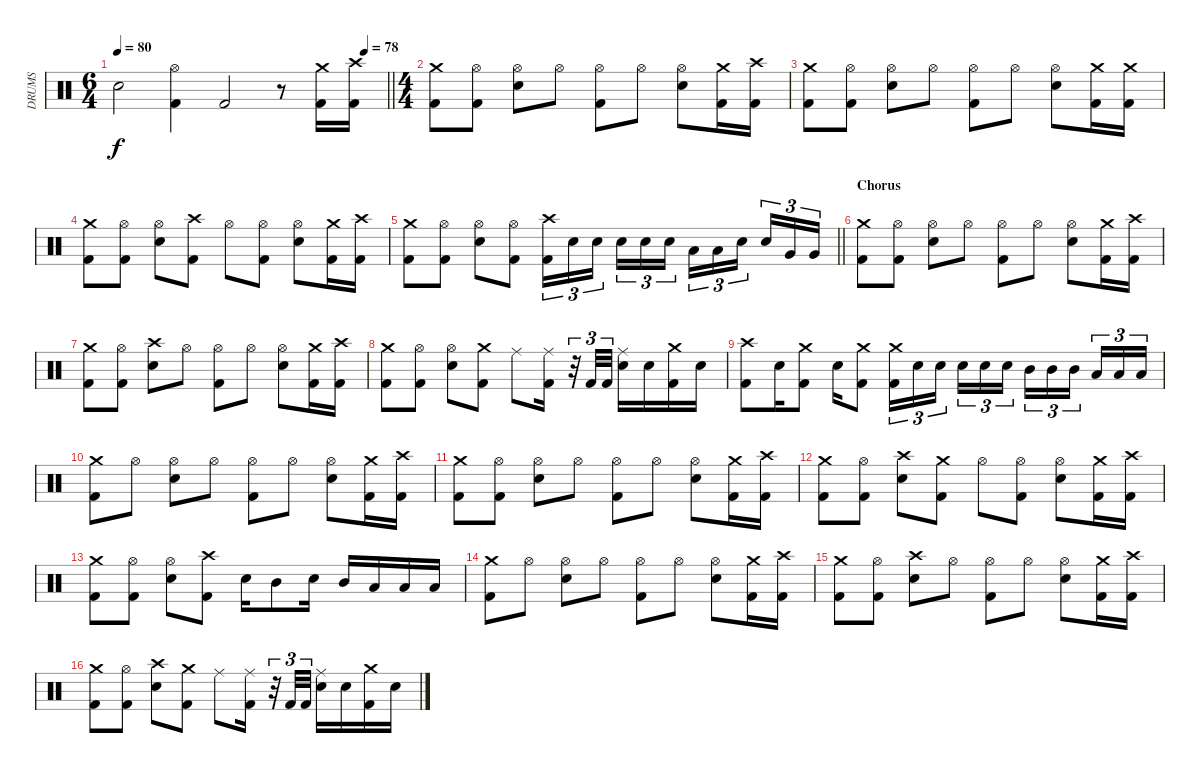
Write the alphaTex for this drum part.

\track ("DRUMS" "DRUMS") {instrument percussion}
\staff {score}
\articulation defaults
\ts (6 4)
\tempo 80
\tempo (78 0.9166666666666666)
\clef neutral
\barLineRight lightlight
\ks c "Snare (hit) 2".2{dy f}
("Hi-Hat (open)" "Kick (hit) 2").4 "Kick (hit) 2".2 r.8 ("Crash medium (hit)" "Kick (hit) 2").16 ("Crash high (hit)" "Kick (hit) 2").16 |
\ts (4 4)
("Crash medium (hit)" "Kick (hit) 2").8 ("Hi-Hat (open)" "Kick (hit) 2").8 ("Hi-Hat (open)" "Snare (hit) 2").8 "Hi-Hat (open)".8 ("Hi-Hat (open)" "Kick (hit) 2").8 "Hi-Hat (open)".8 ("Hi-Hat (open)" "Snare (hit) 2").8 ("Crash medium (hit)" "Kick (hit) 2").16 ("Crash high (hit)" "Kick (hit) 2").16 |
("Crash medium (hit)" "Kick (hit) 2").8 ("Hi-Hat (open)" "Kick (hit) 2").8 ("Hi-Hat (open)" "Snare (hit) 2").8 "Hi-Hat (open)".8 ("Hi-Hat (open)" "Kick (hit) 2").8 "Hi-Hat (open)".8 ("Hi-Hat (open)" "Snare (hit) 2").8 ("Crash medium (hit)" "Kick (hit) 2").16 ("Crash medium (hit)" "Kick (hit) 2").16 |
("Crash medium (hit)" "Kick (hit) 2").8 ("Hi-Hat (open)" "Kick (hit) 2").8 ("Hi-Hat (open)" "Snare (hit) 2").8 ("Crash high (hit)" "Kick (hit) 2").8 "Hi-Hat (open)".8 ("Hi-Hat (open)" "Kick (hit) 2").8 ("Hi-Hat (open)" "Snare (hit) 2").8 ("Crash medium (hit)" "Kick (hit) 2").16 ("Crash high (hit)" "Kick (hit) 2").16 |
\barLineRight lightlight
("Crash medium (hit)" "Kick (hit) 2").8 ("Hi-Hat (open)" "Kick (hit) 2").8 ("Hi-Hat (open)" "Snare (hit) 2").8 ("Hi-Hat (open)" "Kick (hit) 2").8 ("Crash high (hit)" "Kick (hit) 2").16{tu (3 2)} "Snare (hit) 2".16{tu (3 2)} "Snare (hit) 2".16{tu (3 2) beam splitsecondary} "Snare (hit) 2".16{tu (3 2)} "Snare (hit) 2".16{tu (3 2)} "Snare (hit) 2".16{tu (3 2)} "Low Tom (hit)".16{tu (3 2)} "Low Tom (hit)".16{tu (3 2)} "Snare (hit) 2".16{tu (3 2) beam splitsecondary} "Snare (hit) 2".16{tu (3 2)} "Very Low Tom (hit)".16{tu (3 2)} "Very Low Tom (hit)".16{tu (3 2)} |
\section ("" "Chorus")
("Crash medium (hit)" "Kick (hit) 2").8 ("Hi-Hat (open)" "Kick (hit) 2").8 ("Hi-Hat (open)" "Snare (hit) 2").8 "Hi-Hat (open)".8 ("Hi-Hat (open)" "Kick (hit) 2").8 "Hi-Hat (open)".8 ("Hi-Hat (open)" "Snare (hit) 2").8 ("Crash medium (hit)" "Kick (hit) 2").16 ("Crash high (hit)" "Kick (hit) 2").16 |
("Crash medium (hit)" "Kick (hit) 2").8 ("Hi-Hat (open)" "Kick (hit) 2").8 ("Crash high (hit)" "Snare (hit) 2").8 "Hi-Hat (open)".8 ("Hi-Hat (open)" "Kick (hit) 2").8 "Hi-Hat (open)".8 ("Hi-Hat (open)" "Snare (hit) 2").8 ("Crash medium (hit)" "Kick (hit) 2").16 ("Crash high (hit)" "Kick (hit) 2").16 |
("Crash medium (hit)" "Kick (hit) 2").8 ("Hi-Hat (open)" "Kick (hit) 2").8 ("Hi-Hat (open)" "Snare (hit) 2").8 ("Crash medium (hit)" "Kick (hit) 2").8 "Ride (middle)".8 ("Ride (middle)" "Kick (hit) 2").16 r.32{tu (3 2)} "Kick (hit) 2".32{tu (3 2)} "Kick (hit) 2".32{tu (3 2)} ("Ride (middle)" "Snare (hit) 2").16 "Snare (hit) 2".16 ("Crash medium (hit)" "Kick (hit) 2").16 "Snare (hit) 2".16 |
("Crash high (hit)" "Kick (hit) 2").8 "Snare (hit) 2".16 ("Crash medium (hit)" "Kick (hit) 2").8 "Snare (hit) 2".16 ("Crash medium (hit)" "Kick (hit) 2").8 ("Crash medium (hit)" "Kick (hit) 2").16{tu (3 2)} "Snare (hit) 2".16{tu (3 2)} "Snare (hit) 2".16{tu (3 2) beam splitsecondary} "Snare (hit) 2".16{tu (3 2)} "Snare (hit) 2".16{tu (3 2)} "Snare (hit) 2".16{tu (3 2)} "Mid Tom (hit)".16{tu (3 2)} "Mid Tom (hit)".16{tu (3 2)} "Mid Tom (hit)".16{tu (3 2) beam splitsecondary} "Low Tom (hit)".16{tu (3 2)} "Low Tom (hit)".16{tu (3 2)} "Low Tom (hit)".16{tu (3 2)} |
("Crash medium (hit)" "Kick (hit) 2").8 "Hi-Hat (open)".8 ("Hi-Hat (open)" "Snare (hit) 2").8 "Hi-Hat (open)".8 ("Hi-Hat (open)" "Kick (hit) 2").8 "Hi-Hat (open)".8 ("Hi-Hat (open)" "Snare (hit) 2").8 ("Crash medium (hit)" "Kick (hit) 2").16 ("Crash high (hit)" "Kick (hit) 2").16 |
("Crash medium (hit)" "Kick (hit) 2").8 ("Hi-Hat (open)" "Kick (hit) 2").8 ("Hi-Hat (open)" "Snare (hit) 2").8 "Hi-Hat (open)".8 ("Hi-Hat (open)" "Kick (hit) 2").8 "Hi-Hat (open)".8 ("Hi-Hat (open)" "Snare (hit) 2").8 ("Crash medium (hit)" "Kick (hit) 2").16 ("Crash high (hit)" "Kick (hit) 2").16 |
("Crash medium (hit)" "Kick (hit) 2").8 ("Hi-Hat (open)" "Kick (hit) 2").8 ("Crash high (hit)" "Snare (hit) 2").8 ("Crash medium (hit)" "Kick (hit) 2").8 "Hi-Hat (open)".8 ("Hi-Hat (open)" "Kick (hit) 2").8 ("Hi-Hat (open)" "Snare (hit) 2").8 ("Crash medium (hit)" "Kick (hit) 2").16 ("Crash high (hit)" "Kick (hit) 2").16 |
("Crash medium (hit)" "Kick (hit) 2").8 ("Hi-Hat (open)" "Kick (hit) 2").8 ("Hi-Hat (open)" "Snare (hit) 2").8 ("Crash high (hit)" "Kick (hit) 2").8 "Snare (hit) 2".16 "Mid Tom (hit)".8 "Snare (hit) 2".16 "Mid Tom (hit)".16 "Low Tom (hit)".16 "Low Tom (hit)".16 "Low Tom (hit)".16 |
("Crash medium (hit)" "Kick (hit) 2").8 "Hi-Hat (open)".8 ("Hi-Hat (open)" "Snare (hit) 2").8 "Hi-Hat (open)".8 ("Hi-Hat (open)" "Kick (hit) 2").8 "Hi-Hat (open)".8 ("Hi-Hat (open)" "Snare (hit) 2").8 ("Crash medium (hit)" "Kick (hit) 2").16 ("Crash high (hit)" "Kick (hit) 2").16 |
("Crash medium (hit)" "Kick (hit) 2").8 ("Hi-Hat (open)" "Kick (hit) 2").8 ("Crash high (hit)" "Snare (hit) 2").8 "Hi-Hat (open)".8 ("Hi-Hat (open)" "Kick (hit) 2").8 "Hi-Hat (open)".8 ("Hi-Hat (open)" "Snare (hit) 2").8 ("Crash medium (hit)" "Kick (hit) 2").16 ("Crash high (hit)" "Kick (hit) 2").16 |
("Crash medium (hit)" "Kick (hit) 2").8 ("Hi-Hat (open)" "Kick (hit) 2").8 ("Crash high (hit)" "Snare (hit) 2").8 ("Crash medium (hit)" "Kick (hit) 2").8 "Ride (middle)".8 ("Ride (middle)" "Kick (hit) 2").16 r.32{tu (3 2)} "Kick (hit) 2".32{tu (3 2)} "Kick (hit) 2".32{tu (3 2)} ("Ride (middle)" "Snare (hit) 2").16 "Snare (hit) 2".16 ("Crash medium (hit)" "Kick (hit) 2").16 "Snare (hit) 2".16
